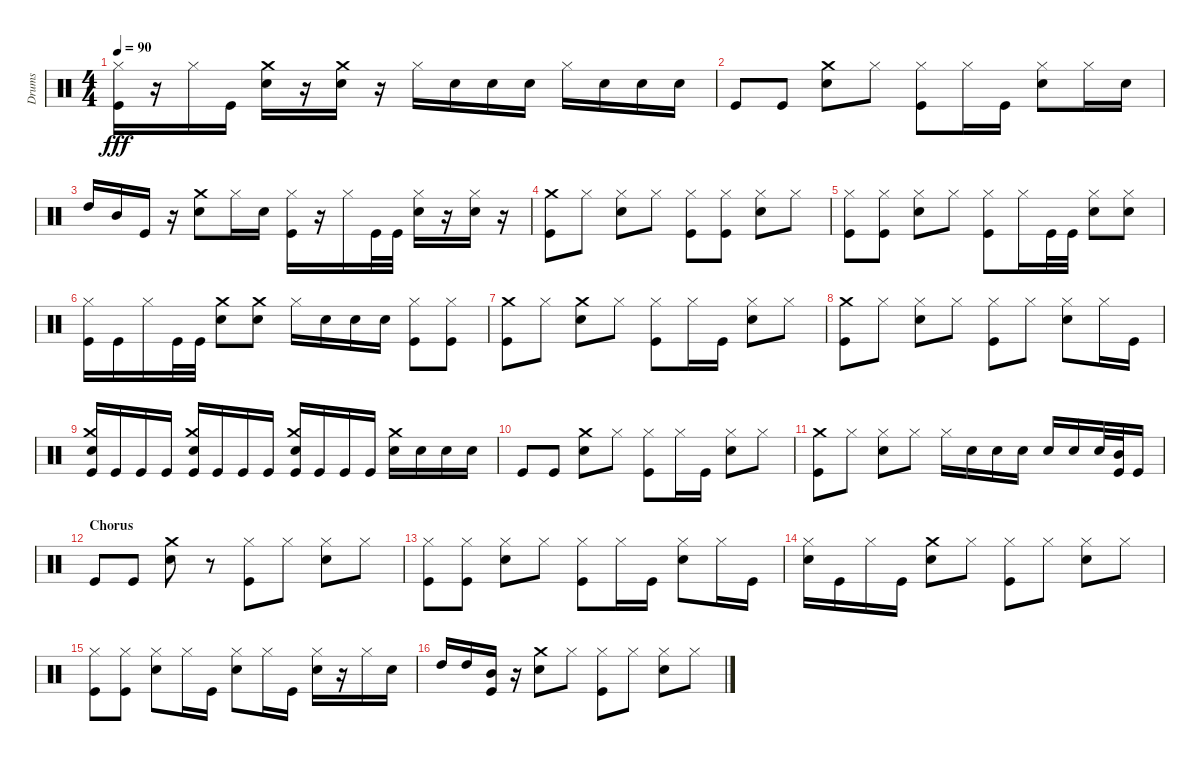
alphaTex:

\track ("Drums" "Drums") {instrument percussion}
\staff {score}
\articulation defaults
\ts (4 4)
\tempo 90
\clef neutral
\ks c
("Hi-Hat (closed)" "Kick (hit)").16{dy fff} r.16 "Hi-Hat (closed)".16 "Kick (hit)".16 ("Crash medium (hit)" "Snare (hit) 2").16 r.16 ("Crash medium (hit)" "Snare (hit) 2").16 r.16 "Hi-Hat (closed)".16 "Snare (hit) 2".16 "Snare (hit) 2".16 "Snare (hit) 2".16 "Hi-Hat (closed)".16 "Snare (hit) 2".16 "Snare (hit) 2".16 "Snare (hit) 2".16 |
"Kick (hit)".8 "Kick (hit)".8 ("Crash medium (hit)" "Snare (hit) 2").8 "Hi-Hat (closed)".8 ("Kick (hit)" "Hi-Hat (closed)").8 "Hi-Hat (closed)".16 "Kick (hit)".16 ("Snare (hit) 2" "Hi-Hat (closed)").8 "Hi-Hat (closed)".16 "Snare (hit) 2".16 |
"High Tom (hit)".16 "Mid Tom (hit)".16 "Kick (hit)".16 r.16 ("Crash medium (hit)" "Snare (hit) 2").8 "Hi-Hat (closed)".16 "Snare (hit) 2".16 ("Hi-Hat (closed)" "Kick (hit)").16 r.16 "Hi-Hat (closed)".16 "Kick (hit)".32 "Kick (hit)".32 ("Hi-Hat (closed)" "Snare (hit) 2").16 r.16 ("Snare (hit) 2" "Hi-Hat (closed)").16 r.16 |
("Crash medium (hit)" "Kick (hit)").8 "Hi-Hat (closed)".8 ("Snare (hit) 2" "Hi-Hat (closed)").8 "Hi-Hat (closed)".8 ("Kick (hit)" "Hi-Hat (closed)").8 ("Kick (hit)" "Hi-Hat (closed)").8 ("Snare (hit) 2" "Hi-Hat (closed)").8 "Hi-Hat (closed)".8 |
("Hi-Hat (closed)" "Kick (hit)").8 ("Hi-Hat (closed)" "Kick (hit)").8 ("Snare (hit) 2" "Hi-Hat (closed)").8 "Hi-Hat (closed)".8 ("Hi-Hat (closed)" "Kick (hit)").8 "Hi-Hat (closed)".16 "Kick (hit)".32 "Kick (hit)".32 ("Snare (hit) 2" "Hi-Hat (closed)").8 ("Snare (hit) 2" "Hi-Hat (closed)").8 |
("Hi-Hat (closed)" "Kick (hit)").16 "Kick (hit)".16 "Hi-Hat (closed)".16 "Kick (hit)".32 "Kick (hit)".32 ("Crash medium (hit)" "Snare (hit) 2").8 ("Crash medium (hit)" "Snare (hit) 2").8 "Hi-Hat (closed)".16 "Snare (hit) 2".16 "Snare (hit) 2".16 "Snare (hit) 2".16 ("Kick (hit)" "Hi-Hat (closed)").8 ("Kick (hit)" "Hi-Hat (closed)").8 |
("Crash medium (hit)" "Kick (hit)").8 "Hi-Hat (closed)".8 ("Crash medium (hit)" "Snare (hit) 2").8 "Hi-Hat (closed)".8 ("Kick (hit)" "Hi-Hat (closed)").8 "Hi-Hat (closed)".16 "Kick (hit)".16 ("Snare (hit) 2" "Hi-Hat (closed)").8 "Hi-Hat (closed)".8 |
("Crash medium (hit)" "Kick (hit)").8 "Hi-Hat (closed)".8 ("Snare (hit) 2" "Hi-Hat (closed)").8 "Hi-Hat (closed)".8 ("Hi-Hat (closed)" "Kick (hit)").8 "Hi-Hat (closed)".8 ("Snare (hit) 2" "Hi-Hat (closed)").8 "Hi-Hat (closed)".16 "Kick (hit)".16 |
("Snare (hit) 2" "Crash medium (hit)" "Kick (hit)").16 "Kick (hit)".16 "Kick (hit)".16 "Kick (hit)".16 ("Snare (hit) 2" "Crash medium (hit)" "Kick (hit)").16 "Kick (hit)".16 "Kick (hit)".16 "Kick (hit)".16 ("Snare (hit) 2" "Crash medium (hit)" "Kick (hit)").16 "Kick (hit)".16 "Kick (hit)".16 "Kick (hit)".16 ("Crash medium (hit)" "Snare (hit) 2").16 "Snare (hit) 2".16 "Snare (hit) 2".16 "Snare (hit) 2".16 |
"Kick (hit)".8 "Kick (hit)".8 ("Crash medium (hit)" "Snare (hit) 2").8 "Hi-Hat (closed)".8 ("Kick (hit)" "Hi-Hat (closed)").8 "Hi-Hat (closed)".16 "Kick (hit)".16 ("Snare (hit) 2" "Hi-Hat (closed)").8 "Hi-Hat (closed)".8 |
("Crash medium (hit)" "Kick (hit)").8 "Hi-Hat (closed)".8 ("Snare (hit) 2" "Hi-Hat (closed)").8 "Hi-Hat (closed)".8 "Hi-Hat (closed)".16 "Snare (hit) 2".16 "Snare (hit) 2".16 "Snare (hit) 2".16 "Snare (hit) 2".16 "Snare (hit) 2".16 "Snare (hit) 2".32 ("Mid Tom (hit)" "Kick (hit)").32 "Kick (hit)".16 |
\section ("" "Chorus")
"Kick (hit)".8 "Kick (hit)".8 ("Crash medium (hit)" "Snare (hit) 2").8 r.8 ("Hi-Hat (closed)" "Kick (hit)").8 "Hi-Hat (closed)".8 ("Snare (hit) 2" "Hi-Hat (closed)").8 "Hi-Hat (closed)".8 |
("Hi-Hat (closed)" "Kick (hit)").8 ("Hi-Hat (closed)" "Kick (hit)").8 ("Snare (hit) 2" "Hi-Hat (closed)").8 "Hi-Hat (closed)".8 ("Kick (hit)" "Hi-Hat (closed)").8 "Hi-Hat (closed)".16 "Kick (hit)".16 ("Snare (hit) 2" "Hi-Hat (closed)").8 "Hi-Hat (closed)".16 "Kick (hit)".16 |
("Hi-Hat (closed)" "Snare (hit) 2").16 "Kick (hit)".16 "Hi-Hat (closed)".16 "Kick (hit)".16 ("Crash medium (hit)" "Snare (hit) 2").8 "Hi-Hat (closed)".8 ("Hi-Hat (closed)" "Kick (hit)").8 "Hi-Hat (closed)".8 ("Snare (hit) 2" "Hi-Hat (closed)").8 "Hi-Hat (closed)".8 |
("Hi-Hat (closed)" "Kick (hit)").8 ("Hi-Hat (closed)" "Kick (hit)").8 ("Snare (hit) 2" "Hi-Hat (closed)").8 "Hi-Hat (closed)".16 "Kick (hit)".16 ("Snare (hit) 2" "Hi-Hat (closed)").8 "Hi-Hat (closed)".16 "Kick (hit)".16 ("Hi-Hat (closed)" "Snare (hit) 2").16 r.16 "Hi-Hat (closed)".16 "Snare (hit) 2".16 |
"High Tom (hit)".16 "High Tom (hit)".16 ("Kick (hit)" "Mid Tom (hit)").16 r.16 ("Crash medium (hit)" "Snare (hit) 2").8 "Hi-Hat (closed)".8 ("Kick (hit)" "Hi-Hat (closed)").8 "Hi-Hat (closed)".8 ("Snare (hit) 2" "Hi-Hat (closed)").8 "Hi-Hat (closed)".8
